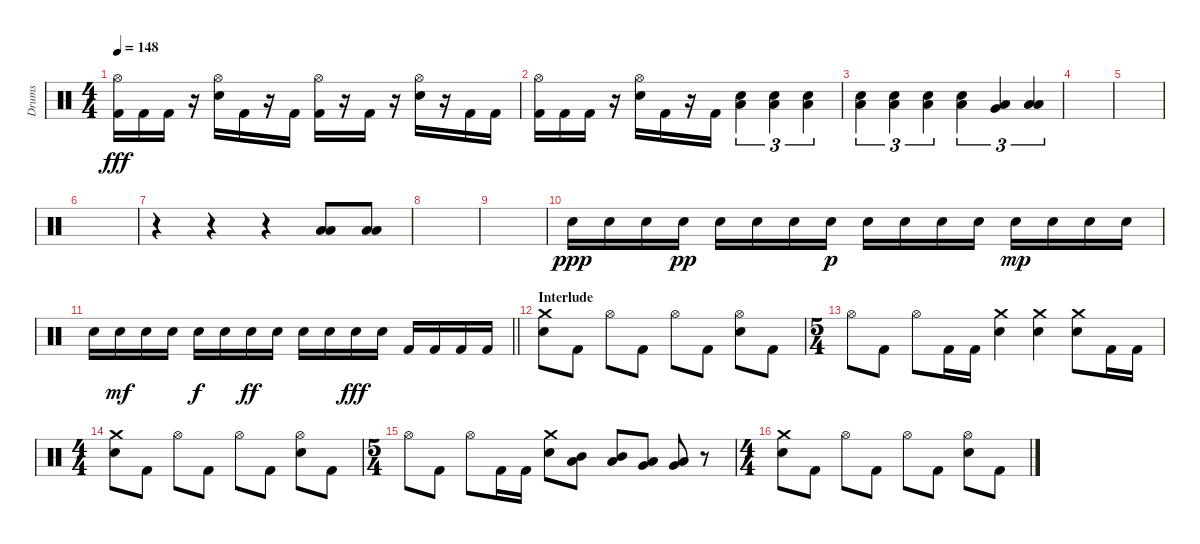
\track ("Drums" "Drums") {instrument percussion}
\staff {score}
\articulation defaults
\ts (4 4)
\tempo 148
\clef neutral
\ks c
("Hi-Hat (open)" "Kick (hit) 2").16{dy fff} "Kick (hit) 2".16 "Kick (hit) 2".16 r.16 ("Hi-Hat (open)" "Electric Snare (hit)").16 "Kick (hit) 2".16 r.16 "Kick (hit) 2".16 ("Hi-Hat (open)" "Kick (hit) 2").16 r.16 "Kick (hit) 2".16 r.16 ("Hi-Hat (open)" "Electric Snare (hit)").16 r.16 "Kick (hit) 2".16 "Kick (hit) 2".16 |
("Hi-Hat (open)" "Kick (hit) 2").16 "Kick (hit) 2".16 "Kick (hit) 2".16 r.16 ("Hi-Hat (open)" "Electric Snare (hit)").16 "Kick (hit) 2".16 r.16 "Kick (hit) 2".16 ("Electric Snare (hit)" "Low Tom (hit)").4{tu (3 2)} ("Electric Snare (hit)" "Low Tom (hit)").4{tu (3 2)} ("Electric Snare (hit)" "Low Tom (hit)").4{tu (3 2)} |
("Electric Snare (hit)" "Low Tom (hit)").4{tu (3 2)} ("Electric Snare (hit)" "Low Tom (hit)").4{tu (3 2)} ("Electric Snare (hit)" "Low Tom (hit)").4{tu (3 2)} ("Electric Snare (hit)" "Low Tom (hit)").4{tu (3 2)} ("Very Low Tom (hit)" "Low Tom (hit)").4{tu (3 2)} ("Low Floor Tom (hit)" "Low Tom (hit)").4{tu (3 2)} |
|
|
|
r.4 r.4 r.4 ("Low Floor Tom (hit)" "Low Tom (hit)").8 ("Low Floor Tom (hit)" "Low Tom (hit)").8 |
|
|
"Electric Snare (hit)".16{dy ppp} "Electric Snare (hit)".16 "Electric Snare (hit)".16 "Electric Snare (hit)".16{dy pp} "Electric Snare (hit)".16 "Electric Snare (hit)".16 "Electric Snare (hit)".16 "Electric Snare (hit)".16{dy p} "Electric Snare (hit)".16 "Electric Snare (hit)".16 "Electric Snare (hit)".16 "Electric Snare (hit)".16 "Electric Snare (hit)".16{dy mp} "Electric Snare (hit)".16 "Electric Snare (hit)".16 "Electric Snare (hit)".16 |
\barLineRight lightlight "Electric Snare (hit)".16 "Electric Snare (hit)".16{dy mf} "Electric Snare (hit)".16 "Electric Snare (hit)".16 "Electric Snare (hit)".16{dy f} "Electric Snare (hit)".16 "Electric Snare (hit)".16{dy ff} "Electric Snare (hit)".16 "Electric Snare (hit)".16 "Electric Snare (hit)".16 "Electric Snare (hit)".16{dy fff} "Electric Snare (hit)".16 "Kick (hit) 2".16 "Kick (hit) 2".16 "Kick (hit) 2".16 "Kick (hit) 2".16
|
\section ("" "Interlude")
("Crash medium (hit)" "Electric Snare (hit)").8 "Kick (hit) 2".8 "Hi-Hat (open)".8 "Kick (hit) 2".8 "Hi-Hat (open)".8 "Kick (hit) 2".8 ("Hi-Hat (open)" "Electric Snare (hit)").8 "Kick (hit) 2".8 |
\ts (5 4)
"Hi-Hat (open)".8 "Kick (hit) 2".8 "Hi-Hat (open)".8 "Kick (hit) 2".16 "Kick (hit) 2".16 ("Crash medium (hit)" "Electric Snare (hit)").4 ("Crash medium (hit)" "Electric Snare (hit)").4 ("Crash medium (hit)" "Electric Snare (hit)").8 "Kick (hit) 2".16 "Kick (hit) 2".16 |
\ts (4 4)
("Crash medium (hit)" "Electric Snare (hit)").8 "Kick (hit) 2".8 "Hi-Hat (open)".8 "Kick (hit) 2".8 "Hi-Hat (open)".8 "Kick (hit) 2".8 ("Hi-Hat (open)" "Electric Snare (hit)").8 "Kick (hit) 2".8 |
\ts (5 4)
"Hi-Hat (open)".8 "Kick (hit) 2".8 "Hi-Hat (open)".8 "Kick (hit) 2".16 "Kick (hit) 2".16 ("Crash medium (hit)" "Electric Snare (hit)").8 ("Low Tom (hit)" "Mid Tom (hit)").8 ("Low Tom (hit)" "Mid Tom (hit)").8 ("Low Floor Tom (hit)" "Very Low Tom (hit)").8 ("Low Floor Tom (hit)" "Very Low Tom (hit)").8 r.8 |
\ts (4 4)
("Crash medium (hit)" "Electric Snare (hit)").8 "Kick (hit) 2".8 "Hi-Hat (open)".8 "Kick (hit) 2".8 "Hi-Hat (open)".8 "Kick (hit) 2".8 ("Hi-Hat (open)" "Electric Snare (hit)").8 "Kick (hit) 2".8
